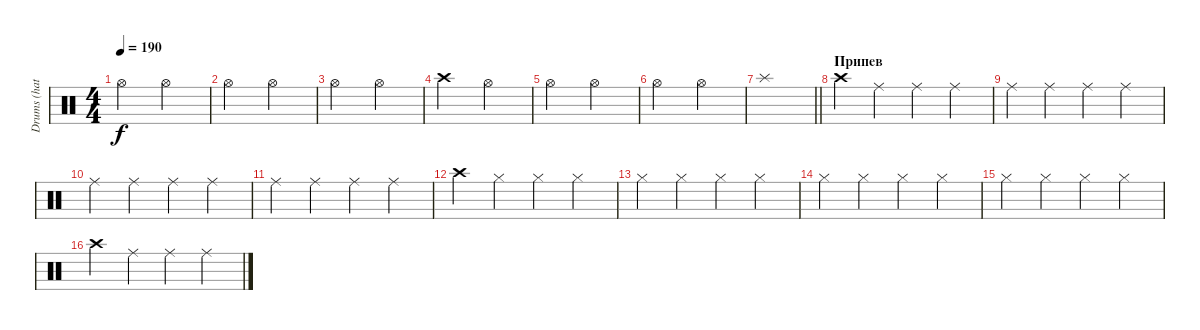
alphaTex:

\track ("Drums (hats)" "Drums (hat") {instrument percussion}
\staff {score}
\articulation defaults
\ts (4 4)
\tempo 190
\clef neutral
\ks c "Hi-Hat (open)".2{dy f} "Hi-Hat (open)".2
|
"Hi-Hat (open)".2 "Hi-Hat (open)".2 |
"Hi-Hat (open)".2 "Hi-Hat (open)".2 |
"Crash high (hit)".2 "Hi-Hat (open)".2 |
"Hi-Hat (open)".2 "Hi-Hat (open)".2 |
"Hi-Hat (open)".2 "Hi-Hat (open)".2 |
\barLineRight lightlight "Splash (hit)".1
|
\section ("" "Припев")
"Crash high (hit)".4 "Ride (middle)".4 "Ride (middle)".4 "Ride (middle)".4 |
"Ride (middle)".4 "Ride (middle)".4 "Ride (middle)".4 "Ride (middle)".4 |
"Ride (middle)".4 "Ride (middle)".4 "Ride (middle)".4 "Ride (middle)".4 |
"Ride (middle)".4 "Ride (middle)".4 "Ride (middle)".4 "Ride (middle)".4 |
"Crash high (hit)".4 "Hi-Hat (closed)".4 "Hi-Hat (closed)".4 "Hi-Hat (closed)".4 |
"Hi-Hat (closed)".4 "Hi-Hat (closed)".4 "Hi-Hat (closed)".4 "Hi-Hat (closed)".4 |
"Hi-Hat (closed)".4 "Hi-Hat (closed)".4 "Hi-Hat (closed)".4 "Hi-Hat (closed)".4 |
"Hi-Hat (closed)".4 "Hi-Hat (closed)".4 "Hi-Hat (closed)".4 "Hi-Hat (closed)".4 |
"Crash high (hit)".4 "Ride (middle)".4 "Ride (middle)".4 "Ride (middle)".4
